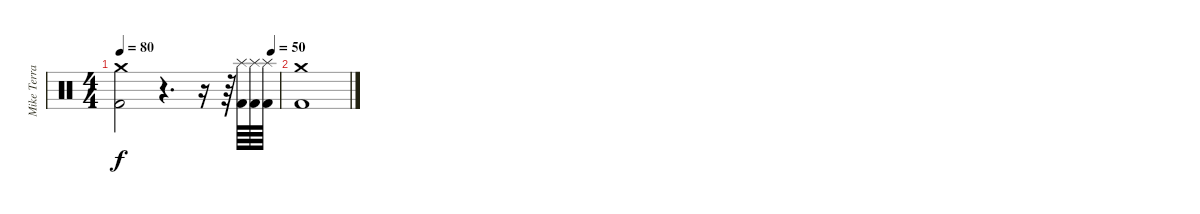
\track ("Mike Terrana" "Mike Terra") {instrument percussion}
\staff {score}
\articulation defaults
\ts (4 4)
\tempo 80
\tempo (50 0.953125)
\clef neutral
\ks c
("Crash medium (hit)" "Kick (hit) 2").2{dy f} r.4{d} r.16 r.64 ("Splash (hit)" "Kick (hit) 2").64 ("Splash (hit)" "Kick (hit) 2").64 ("Splash (hit)" "Kick (hit) 2").64 |
("Crash medium (hit)" "Kick (hit) 2").1
